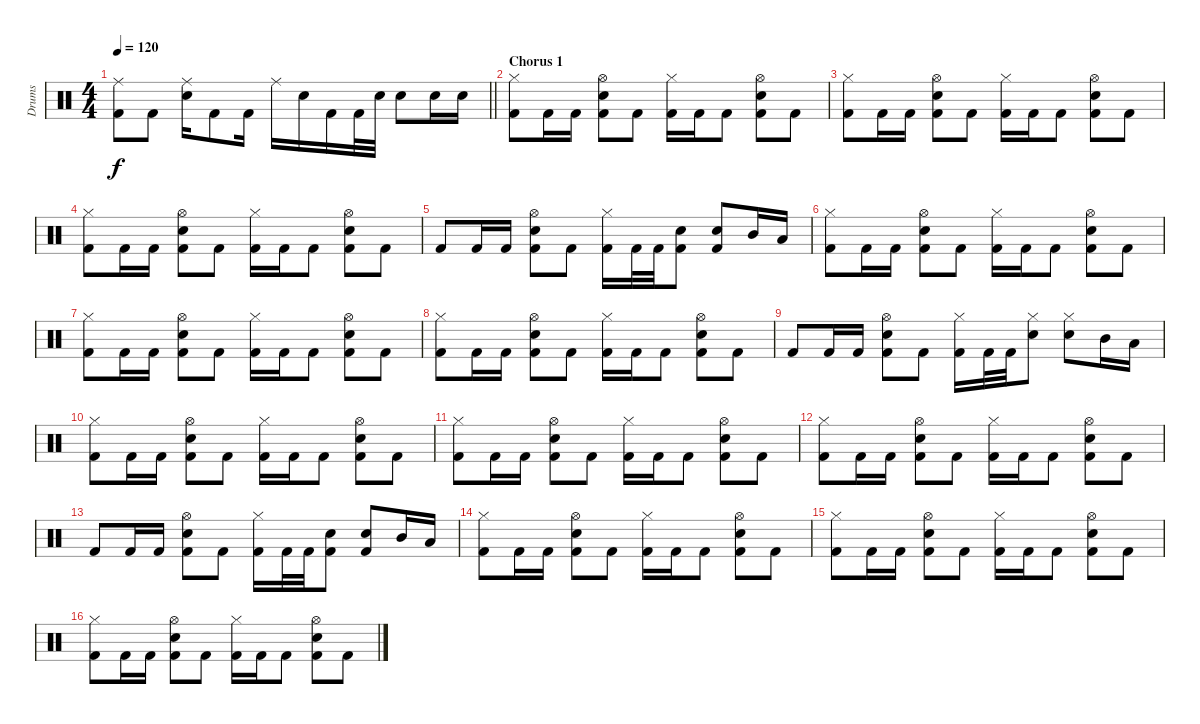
\track ("Drums" "Drums") {instrument percussion}
\staff {score}
\articulation defaults
\ts (4 4)
\tempo 120
\clef neutral
\barLineRight lightlight
\ks c
("Ride (middle)" "Kick (hit) 2").8{dy f} "Kick (hit) 2".8 ("Ride (middle)" "Electric Snare (hit)").16 "Kick (hit) 2".8 "Kick (hit) 2".16 "Ride (middle)".16 "Electric Snare (hit)".16 "Kick (hit) 2".16 "Kick (hit) 2".32 "Electric Snare (hit)".32 "Electric Snare (hit)".8 "Electric Snare (hit)".16 "Electric Snare (hit)".16 |
\section ("" "Chorus 1")
("Hi-Hat (closed)" "Kick (hit) 2").8 "Kick (hit) 2".16 "Kick (hit) 2".16 ("Hi-Hat (open)" "Electric Snare (hit)" "Kick (hit) 2").8 "Kick (hit) 2".8 ("Hi-Hat (closed)" "Kick (hit) 2").16 "Kick (hit) 2".16 "Kick (hit) 2".8 ("Hi-Hat (open)" "Electric Snare (hit)" "Kick (hit) 2").8 "Kick (hit) 2".8 |
("Hi-Hat (closed)" "Kick (hit) 2").8 "Kick (hit) 2".16 "Kick (hit) 2".16 ("Hi-Hat (open)" "Electric Snare (hit)" "Kick (hit) 2").8 "Kick (hit) 2".8 ("Hi-Hat (closed)" "Kick (hit) 2").16 "Kick (hit) 2".16 "Kick (hit) 2".8 ("Hi-Hat (open)" "Electric Snare (hit)" "Kick (hit) 2").8 "Kick (hit) 2".8 |
("Hi-Hat (closed)" "Kick (hit) 2").8 "Kick (hit) 2".16 "Kick (hit) 2".16 ("Hi-Hat (open)" "Electric Snare (hit)" "Kick (hit) 2").8 "Kick (hit) 2".8 ("Hi-Hat (closed)" "Kick (hit) 2").16 "Kick (hit) 2".16 "Kick (hit) 2".8 ("Hi-Hat (open)" "Electric Snare (hit)" "Kick (hit) 2").8 "Kick (hit) 2".8 |
"Kick (hit) 2".8 "Kick (hit) 2".16 "Kick (hit) 2".16 ("Hi-Hat (open)" "Electric Snare (hit)" "Kick (hit) 2").8 "Kick (hit) 2".8 ("Hi-Hat (closed)" "Kick (hit) 2").16 "Kick (hit) 2".32 "Kick (hit) 2".32 ("Electric Snare (hit)" "Kick (hit) 2").8 ("Electric Snare (hit)" "Kick (hit) 2").8 "Mid Tom (hit)".16 "Low Tom (hit)".16 |
("Hi-Hat (closed)" "Kick (hit) 2").8 "Kick (hit) 2".16 "Kick (hit) 2".16 ("Hi-Hat (open)" "Electric Snare (hit)" "Kick (hit) 2").8 "Kick (hit) 2".8 ("Hi-Hat (closed)" "Kick (hit) 2").16 "Kick (hit) 2".16 "Kick (hit) 2".8 ("Hi-Hat (open)" "Electric Snare (hit)" "Kick (hit) 2").8 "Kick (hit) 2".8 |
("Hi-Hat (closed)" "Kick (hit) 2").8 "Kick (hit) 2".16 "Kick (hit) 2".16 ("Hi-Hat (open)" "Electric Snare (hit)" "Kick (hit) 2").8 "Kick (hit) 2".8 ("Hi-Hat (closed)" "Kick (hit) 2").16 "Kick (hit) 2".16 "Kick (hit) 2".8 ("Hi-Hat (open)" "Electric Snare (hit)" "Kick (hit) 2").8 "Kick (hit) 2".8 |
("Hi-Hat (closed)" "Kick (hit) 2").8 "Kick (hit) 2".16 "Kick (hit) 2".16 ("Hi-Hat (open)" "Electric Snare (hit)" "Kick (hit) 2").8 "Kick (hit) 2".8 ("Hi-Hat (closed)" "Kick (hit) 2").16 "Kick (hit) 2".16 "Kick (hit) 2".8 ("Hi-Hat (open)" "Electric Snare (hit)" "Kick (hit) 2").8 "Kick (hit) 2".8 |
"Kick (hit) 2".8 "Kick (hit) 2".16 "Kick (hit) 2".16 ("Hi-Hat (open)" "Electric Snare (hit)" "Kick (hit) 2").8 "Kick (hit) 2".8 ("Hi-Hat (closed)" "Kick (hit) 2").16 "Kick (hit) 2".32 "Kick (hit) 2".32 ("Hi-Hat (closed)" "Electric Snare (hit)").8 ("Hi-Hat (closed)" "Electric Snare (hit)").8 "Mid Tom (hit)".16 "Low Tom (hit)".16 |
("Hi-Hat (closed)" "Kick (hit) 2").8 "Kick (hit) 2".16 "Kick (hit) 2".16 ("Hi-Hat (open)" "Electric Snare (hit)" "Kick (hit) 2").8 "Kick (hit) 2".8 ("Hi-Hat (closed)" "Kick (hit) 2").16 "Kick (hit) 2".16 "Kick (hit) 2".8 ("Hi-Hat (open)" "Electric Snare (hit)" "Kick (hit) 2").8 "Kick (hit) 2".8 |
("Hi-Hat (closed)" "Kick (hit) 2").8 "Kick (hit) 2".16 "Kick (hit) 2".16 ("Hi-Hat (open)" "Electric Snare (hit)" "Kick (hit) 2").8 "Kick (hit) 2".8 ("Hi-Hat (closed)" "Kick (hit) 2").16 "Kick (hit) 2".16 "Kick (hit) 2".8 ("Hi-Hat (open)" "Electric Snare (hit)" "Kick (hit) 2").8 "Kick (hit) 2".8 |
("Hi-Hat (closed)" "Kick (hit) 2").8 "Kick (hit) 2".16 "Kick (hit) 2".16 ("Hi-Hat (open)" "Electric Snare (hit)" "Kick (hit) 2").8 "Kick (hit) 2".8 ("Hi-Hat (closed)" "Kick (hit) 2").16 "Kick (hit) 2".16 "Kick (hit) 2".8 ("Hi-Hat (open)" "Electric Snare (hit)" "Kick (hit) 2").8 "Kick (hit) 2".8 |
"Kick (hit) 2".8 "Kick (hit) 2".16 "Kick (hit) 2".16 ("Hi-Hat (open)" "Electric Snare (hit)" "Kick (hit) 2").8 "Kick (hit) 2".8 ("Hi-Hat (closed)" "Kick (hit) 2").16 "Kick (hit) 2".32 "Kick (hit) 2".32 ("Electric Snare (hit)" "Kick (hit) 2").8 ("Electric Snare (hit)" "Kick (hit) 2").8 "Mid Tom (hit)".16 "Low Tom (hit)".16 |
("Hi-Hat (closed)" "Kick (hit) 2").8 "Kick (hit) 2".16 "Kick (hit) 2".16 ("Hi-Hat (open)" "Electric Snare (hit)" "Kick (hit) 2").8 "Kick (hit) 2".8 ("Hi-Hat (closed)" "Kick (hit) 2").16 "Kick (hit) 2".16 "Kick (hit) 2".8 ("Hi-Hat (open)" "Electric Snare (hit)" "Kick (hit) 2").8 "Kick (hit) 2".8 |
("Hi-Hat (closed)" "Kick (hit) 2").8 "Kick (hit) 2".16 "Kick (hit) 2".16 ("Hi-Hat (open)" "Electric Snare (hit)" "Kick (hit) 2").8 "Kick (hit) 2".8 ("Hi-Hat (closed)" "Kick (hit) 2").16 "Kick (hit) 2".16 "Kick (hit) 2".8 ("Hi-Hat (open)" "Electric Snare (hit)" "Kick (hit) 2").8 "Kick (hit) 2".8 |
("Hi-Hat (closed)" "Kick (hit) 2").8 "Kick (hit) 2".16 "Kick (hit) 2".16 ("Hi-Hat (open)" "Electric Snare (hit)" "Kick (hit) 2").8 "Kick (hit) 2".8 ("Hi-Hat (closed)" "Kick (hit) 2").16 "Kick (hit) 2".16 "Kick (hit) 2".8 ("Hi-Hat (open)" "Electric Snare (hit)" "Kick (hit) 2").8 "Kick (hit) 2".8
